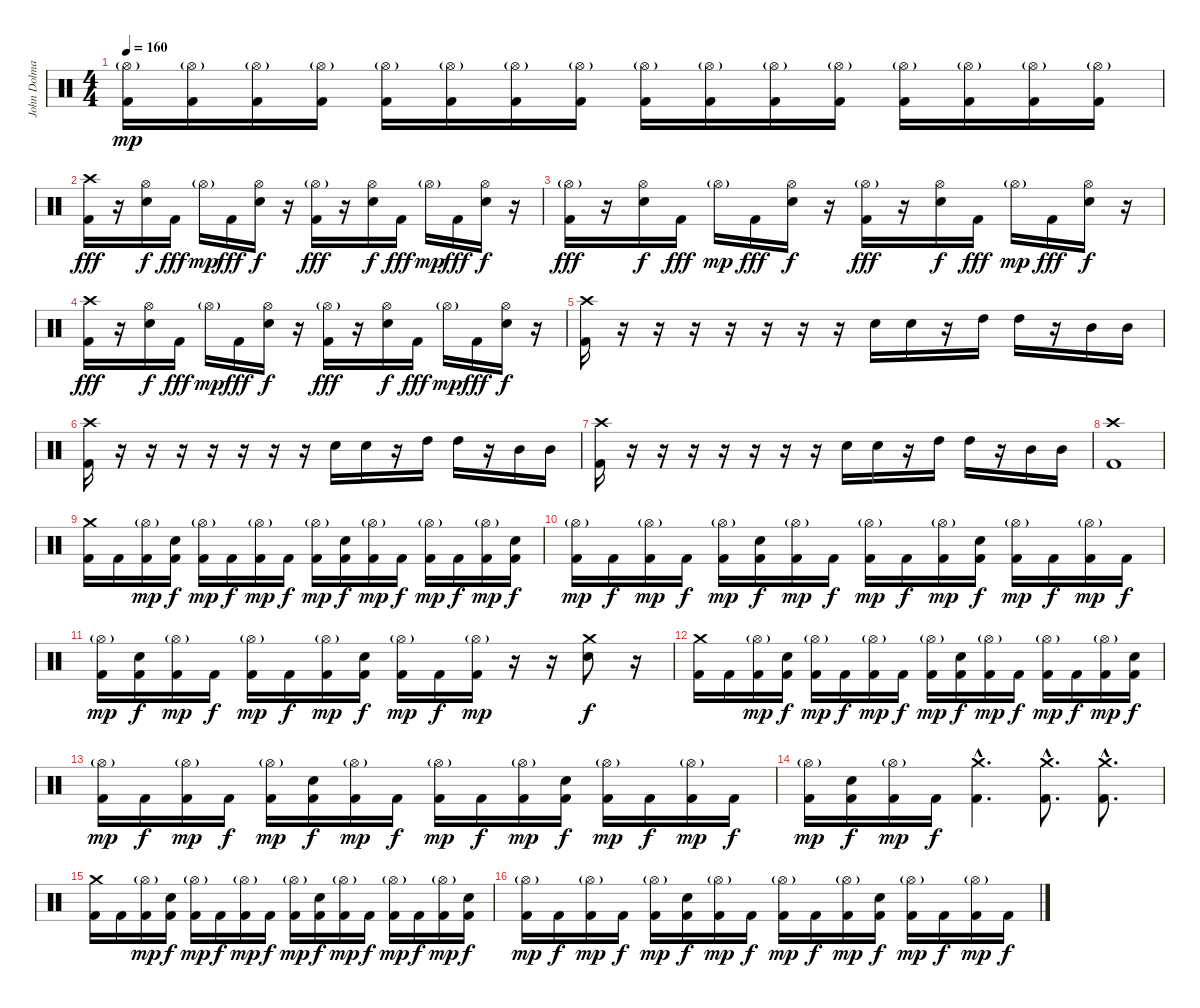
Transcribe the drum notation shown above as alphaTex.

\track ("John Dolmayan(Drums)" "John Dolma") {instrument percussion}
\staff {score}
\articulation defaults
\ts (4 4)
\tempo 160
\clef neutral
\ks c
("Hi-Hat (open)"{g} "Kick (hit) 2").16{dy mp} ("Hi-Hat (open)"{g} "Kick (hit) 2").16 ("Hi-Hat (open)"{g} "Kick (hit) 2").16 ("Hi-Hat (open)"{g} "Kick (hit) 2").16 ("Hi-Hat (open)"{g} "Kick (hit) 2").16 ("Hi-Hat (open)"{g} "Kick (hit) 2").16 ("Hi-Hat (open)"{g} "Kick (hit) 2").16 ("Hi-Hat (open)"{g} "Kick (hit) 2").16 ("Hi-Hat (open)"{g} "Kick (hit) 2").16 ("Hi-Hat (open)"{g} "Kick (hit) 2").16 ("Hi-Hat (open)"{g} "Kick (hit) 2").16 ("Hi-Hat (open)"{g} "Kick (hit) 2").16 ("Hi-Hat (open)"{g} "Kick (hit) 2").16 ("Hi-Hat (open)"{g} "Kick (hit) 2").16 ("Hi-Hat (open)"{g} "Kick (hit) 2").16 ("Hi-Hat (open)"{g} "Kick (hit) 2").16 |
("Crash high (hit)" "Kick (hit) 2").16{dy fff} r.16 ("Hi-Hat (open)" "Electric Snare (hit)").16{dy f} "Kick (hit) 2".16{dy fff} "Hi-Hat (open)"{g}.16{dy mp} "Kick (hit) 2".16{dy fff} ("Hi-Hat (open)" "Electric Snare (hit)").16{dy f} r.16 ("Hi-Hat (open)"{g} "Kick (hit) 2").16{dy fff} r.16 ("Hi-Hat (open)" "Electric Snare (hit)").16{dy f} "Kick (hit) 2".16{dy fff} "Hi-Hat (open)"{g}.16{dy mp} "Kick (hit) 2".16{dy fff} ("Hi-Hat (open)" "Electric Snare (hit)").16{dy f} r.16 |
("Hi-Hat (open)"{g} "Kick (hit) 2").16{dy fff} r.16 ("Hi-Hat (open)" "Electric Snare (hit)").16{dy f} "Kick (hit) 2".16{dy fff} "Hi-Hat (open)"{g}.16{dy mp} "Kick (hit) 2".16{dy fff} ("Hi-Hat (open)" "Electric Snare (hit)").16{dy f} r.16 ("Hi-Hat (open)"{g} "Kick (hit) 2").16{dy fff} r.16 ("Hi-Hat (open)" "Electric Snare (hit)").16{dy f} "Kick (hit) 2".16{dy fff} "Hi-Hat (open)"{g}.16{dy mp} "Kick (hit) 2".16{dy fff} ("Hi-Hat (open)" "Electric Snare (hit)").16{dy f} r.16 |
("Crash high (hit)" "Kick (hit) 2").16{dy fff} r.16 ("Hi-Hat (open)" "Electric Snare (hit)").16{dy f} "Kick (hit) 2".16{dy fff} "Hi-Hat (open)"{g}.16{dy mp} "Kick (hit) 2".16{dy fff} ("Hi-Hat (open)" "Electric Snare (hit)").16{dy f} r.16 ("Hi-Hat (open)"{g} "Kick (hit) 2").16{dy fff} r.16 ("Hi-Hat (open)" "Electric Snare (hit)").16{dy f} "Kick (hit) 2".16{dy fff} "Hi-Hat (open)"{g}.16{dy mp} "Kick (hit) 2".16{dy fff} ("Hi-Hat (open)" "Electric Snare (hit)").16{dy f} r.16 |
("Crash high (hit)" "Kick (hit) 2").16 r.16 r.16 r.16 r.16 r.16 r.16 r.16 "Electric Snare (hit)".16 "Electric Snare (hit)".16 r.16 "High Tom (hit)".16 "High Tom (hit)".16 r.16 "Mid Tom (hit)".16 "Mid Tom (hit)".16 |
("Crash high (hit)" "Kick (hit) 2").16 r.16 r.16 r.16 r.16 r.16 r.16 r.16 "Electric Snare (hit)".16 "Electric Snare (hit)".16 r.16 "High Tom (hit)".16 "High Tom (hit)".16 r.16 "Mid Tom (hit)".16 "Mid Tom (hit)".16 |
("Crash high (hit)" "Kick (hit) 2").16 r.16 r.16 r.16 r.16 r.16 r.16 r.16 "Electric Snare (hit)".16 "Electric Snare (hit)".16 r.16 "High Tom (hit)".16 "High Tom (hit)".16 r.16 "Mid Tom (hit)".16 "Mid Tom (hit)".16 |
("Crash high (hit)" "Kick (hit) 2").1 |
("Crash medium (hit)" "Kick (hit) 2").16 "Kick (hit) 2".16 ("Hi-Hat (open)"{g} "Kick (hit) 2").16{dy mp} ("Electric Snare (hit)" "Kick (hit) 2").16{dy f} ("Hi-Hat (open)"{g} "Kick (hit) 2").16{dy mp} "Kick (hit) 2".16{dy f} ("Hi-Hat (open)"{g} "Kick (hit) 2").16{dy mp} "Kick (hit) 2".16{dy f} ("Hi-Hat (open)"{g} "Kick (hit) 2").16{dy mp} ("Electric Snare (hit)" "Kick (hit) 2").16{dy f} ("Hi-Hat (open)"{g} "Kick (hit) 2").16{dy mp} "Kick (hit) 2".16{dy f} ("Hi-Hat (open)"{g} "Kick (hit) 2").16{dy mp} "Kick (hit) 2".16{dy f} ("Hi-Hat (open)"{g} "Kick (hit) 2").16{dy mp} ("Electric Snare (hit)" "Kick (hit) 2").16{dy f} |
("Hi-Hat (open)"{g} "Kick (hit) 2").16{dy mp} "Kick (hit) 2".16{dy f} ("Hi-Hat (open)"{g} "Kick (hit) 2").16{dy mp} "Kick (hit) 2".16{dy f} ("Hi-Hat (open)"{g} "Kick (hit) 2").16{dy mp} ("Electric Snare (hit)" "Kick (hit) 2").16{dy f} ("Hi-Hat (open)"{g} "Kick (hit) 2").16{dy mp} "Kick (hit) 2".16{dy f} ("Hi-Hat (open)"{g} "Kick (hit) 2").16{dy mp} "Kick (hit) 2".16{dy f} ("Hi-Hat (open)"{g} "Kick (hit) 2").16{dy mp} ("Electric Snare (hit)" "Kick (hit) 2").16{dy f} ("Hi-Hat (open)"{g} "Kick (hit) 2").16{dy mp} "Kick (hit) 2".16{dy f} ("Hi-Hat (open)"{g} "Kick (hit) 2").16{dy mp} "Kick (hit) 2".16{dy f} |
("Hi-Hat (open)"{g} "Kick (hit) 2").16{dy mp} ("Electric Snare (hit)" "Kick (hit) 2").16{dy f} ("Hi-Hat (open)"{g} "Kick (hit) 2").16{dy mp} "Kick (hit) 2".16{dy f} ("Hi-Hat (open)"{g} "Kick (hit) 2").16{dy mp} "Kick (hit) 2".16{dy f} ("Hi-Hat (open)"{g} "Kick (hit) 2").16{dy mp} ("Electric Snare (hit)" "Kick (hit) 2").16{dy f} ("Hi-Hat (open)"{g} "Kick (hit) 2").16{dy mp} "Kick (hit) 2".16{dy f} ("Hi-Hat (open)"{g} "Kick (hit) 2").16{dy mp} r.16 r.16 ("Crash medium (hit)" "Electric Snare (hit)").8{dy f} r.16 |
("Crash medium (hit)" "Kick (hit) 2").16 "Kick (hit) 2".16 ("Hi-Hat (open)"{g} "Kick (hit) 2").16{dy mp} ("Electric Snare (hit)" "Kick (hit) 2").16{dy f} ("Hi-Hat (open)"{g} "Kick (hit) 2").16{dy mp} "Kick (hit) 2".16{dy f} ("Hi-Hat (open)"{g} "Kick (hit) 2").16{dy mp} "Kick (hit) 2".16{dy f} ("Hi-Hat (open)"{g} "Kick (hit) 2").16{dy mp} ("Electric Snare (hit)" "Kick (hit) 2").16{dy f} ("Hi-Hat (open)"{g} "Kick (hit) 2").16{dy mp} "Kick (hit) 2".16{dy f} ("Hi-Hat (open)"{g} "Kick (hit) 2").16{dy mp} "Kick (hit) 2".16{dy f} ("Hi-Hat (open)"{g} "Kick (hit) 2").16{dy mp} ("Electric Snare (hit)" "Kick (hit) 2").16{dy f} |
("Hi-Hat (open)"{g} "Kick (hit) 2").16{dy mp} "Kick (hit) 2".16{dy f} ("Hi-Hat (open)"{g} "Kick (hit) 2").16{dy mp} "Kick (hit) 2".16{dy f} ("Hi-Hat (open)"{g} "Kick (hit) 2").16{dy mp} ("Electric Snare (hit)" "Kick (hit) 2").16{dy f} ("Hi-Hat (open)"{g} "Kick (hit) 2").16{dy mp} "Kick (hit) 2".16{dy f} ("Hi-Hat (open)"{g} "Kick (hit) 2").16{dy mp} "Kick (hit) 2".16{dy f} ("Hi-Hat (open)"{g} "Kick (hit) 2").16{dy mp} ("Electric Snare (hit)" "Kick (hit) 2").16{dy f} ("Hi-Hat (open)"{g} "Kick (hit) 2").16{dy mp} "Kick (hit) 2".16{dy f} ("Hi-Hat (open)"{g} "Kick (hit) 2").16{dy mp} "Kick (hit) 2".16{dy f} |
("Hi-Hat (open)"{g} "Kick (hit) 2").16{dy mp} ("Electric Snare (hit)" "Kick (hit) 2").16{dy f} ("Hi-Hat (open)"{g} "Kick (hit) 2").16{dy mp} "Kick (hit) 2".16{dy f} ("Crash medium (hit)"{hac} "Kick (hit) 2"{hac}).4{d} ("Crash medium (hit)"{hac} "Kick (hit) 2"{hac}).8{d} ("Crash medium (hit)"{hac} "Kick (hit) 2"{hac}).8{d} |
("Crash medium (hit)" "Kick (hit) 2").16 "Kick (hit) 2".16 ("Hi-Hat (open)"{g} "Kick (hit) 2").16{dy mp} ("Electric Snare (hit)" "Kick (hit) 2").16{dy f} ("Hi-Hat (open)"{g} "Kick (hit) 2").16{dy mp} "Kick (hit) 2".16{dy f} ("Hi-Hat (open)"{g} "Kick (hit) 2").16{dy mp} "Kick (hit) 2".16{dy f} ("Hi-Hat (open)"{g} "Kick (hit) 2").16{dy mp} ("Electric Snare (hit)" "Kick (hit) 2").16{dy f} ("Hi-Hat (open)"{g} "Kick (hit) 2").16{dy mp} "Kick (hit) 2".16{dy f} ("Hi-Hat (open)"{g} "Kick (hit) 2").16{dy mp} "Kick (hit) 2".16{dy f} ("Hi-Hat (open)"{g} "Kick (hit) 2").16{dy mp} ("Electric Snare (hit)" "Kick (hit) 2").16{dy f} |
("Hi-Hat (open)"{g} "Kick (hit) 2").16{dy mp} "Kick (hit) 2".16{dy f} ("Hi-Hat (open)"{g} "Kick (hit) 2").16{dy mp} "Kick (hit) 2".16{dy f} ("Hi-Hat (open)"{g} "Kick (hit) 2").16{dy mp} ("Electric Snare (hit)" "Kick (hit) 2").16{dy f} ("Hi-Hat (open)"{g} "Kick (hit) 2").16{dy mp} "Kick (hit) 2".16{dy f} ("Hi-Hat (open)"{g} "Kick (hit) 2").16{dy mp} "Kick (hit) 2".16{dy f} ("Hi-Hat (open)"{g} "Kick (hit) 2").16{dy mp} ("Electric Snare (hit)" "Kick (hit) 2").16{dy f} ("Hi-Hat (open)"{g} "Kick (hit) 2").16{dy mp} "Kick (hit) 2".16{dy f} ("Hi-Hat (open)"{g} "Kick (hit) 2").16{dy mp} "Kick (hit) 2".16{dy f}
